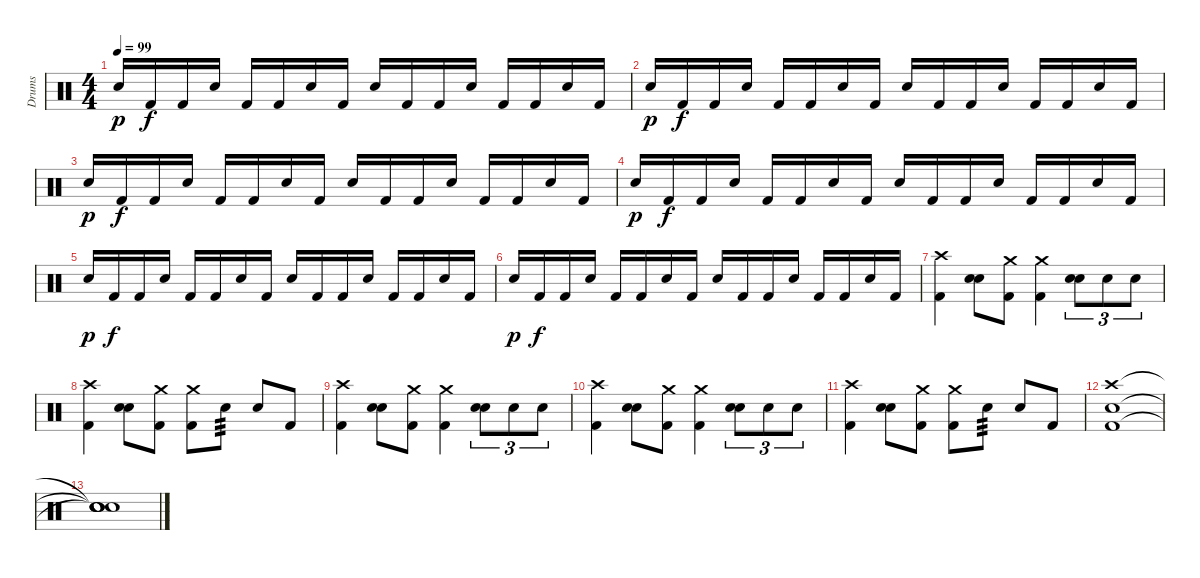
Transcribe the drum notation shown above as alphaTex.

\track ("Drums" "Drums") {instrument percussion}
\staff {score}
\articulation defaults
\ts (4 4)
\tempo 99
\clef neutral
\ks c "Electric Snare (hit)".16{dy p} "Kick (hit) 2".16{dy f} "Kick (hit) 2".16 "Electric Snare (hit)".16 "Kick (hit) 2".16 "Kick (hit) 2".16 "Electric Snare (hit)".16 "Kick (hit) 2".16 "Electric Snare (hit)".16 "Kick (hit) 2".16 "Kick (hit) 2".16 "Electric Snare (hit)".16 "Kick (hit) 2".16 "Kick (hit) 2".16 "Electric Snare (hit)".16 "Kick (hit) 2".16
|
"Electric Snare (hit)".16{dy p} "Kick (hit) 2".16{dy f} "Kick (hit) 2".16 "Electric Snare (hit)".16 "Kick (hit) 2".16 "Kick (hit) 2".16 "Electric Snare (hit)".16 "Kick (hit) 2".16 "Electric Snare (hit)".16 "Kick (hit) 2".16 "Kick (hit) 2".16 "Electric Snare (hit)".16 "Kick (hit) 2".16 "Kick (hit) 2".16 "Electric Snare (hit)".16 "Kick (hit) 2".16 |
"Electric Snare (hit)".16{dy p} "Kick (hit) 2".16{dy f} "Kick (hit) 2".16 "Electric Snare (hit)".16 "Kick (hit) 2".16 "Kick (hit) 2".16 "Electric Snare (hit)".16 "Kick (hit) 2".16 "Electric Snare (hit)".16 "Kick (hit) 2".16 "Kick (hit) 2".16 "Electric Snare (hit)".16 "Kick (hit) 2".16 "Kick (hit) 2".16 "Electric Snare (hit)".16 "Kick (hit) 2".16 |
"Electric Snare (hit)".16{dy p} "Kick (hit) 2".16{dy f} "Kick (hit) 2".16 "Electric Snare (hit)".16 "Kick (hit) 2".16 "Kick (hit) 2".16 "Electric Snare (hit)".16 "Kick (hit) 2".16 "Electric Snare (hit)".16 "Kick (hit) 2".16 "Kick (hit) 2".16 "Electric Snare (hit)".16 "Kick (hit) 2".16 "Kick (hit) 2".16 "Electric Snare (hit)".16 "Kick (hit) 2".16 |
"Electric Snare (hit)".16{dy p} "Kick (hit) 2".16{dy f} "Kick (hit) 2".16 "Electric Snare (hit)".16 "Kick (hit) 2".16 "Kick (hit) 2".16 "Electric Snare (hit)".16 "Kick (hit) 2".16 "Electric Snare (hit)".16 "Kick (hit) 2".16 "Kick (hit) 2".16 "Electric Snare (hit)".16 "Kick (hit) 2".16 "Kick (hit) 2".16 "Electric Snare (hit)".16 "Kick (hit) 2".16 |
"Electric Snare (hit)".16{dy p} "Kick (hit) 2".16{dy f} "Kick (hit) 2".16 "Electric Snare (hit)".16 "Kick (hit) 2".16 "Kick (hit) 2".16 "Electric Snare (hit)".16 "Kick (hit) 2".16 "Electric Snare (hit)".16 "Kick (hit) 2".16 "Kick (hit) 2".16 "Electric Snare (hit)".16 "Kick (hit) 2".16 "Kick (hit) 2".16 "Electric Snare (hit)".16 "Kick (hit) 2".16 |
("Crash high (hit)" "Kick (hit) 2").4 ("Electric Snare (hit)" "Electric Snare (hit)").8 ("Crash medium (hit)" "Kick (hit) 2").8 ("Crash medium (hit)" "Kick (hit) 2").4 ("Electric Snare (hit)" "Electric Snare (hit)").8{tu (3 2)} "Electric Snare (hit)".8{tu (3 2)} "Electric Snare (hit)".8{tu (3 2)} |
("Crash high (hit)" "Kick (hit) 2").4 ("Electric Snare (hit)" "Electric Snare (hit)").8 ("Crash medium (hit)" "Kick (hit) 2").8 ("Crash medium (hit)" "Kick (hit) 2").8 "Electric Snare (hit)".8{tp 3} "Electric Snare (hit)".8 "Kick (hit) 2".8 |
("Crash high (hit)" "Kick (hit) 2").4 ("Electric Snare (hit)" "Electric Snare (hit)").8 ("Crash medium (hit)" "Kick (hit) 2").8 ("Crash medium (hit)" "Kick (hit) 2").4 ("Electric Snare (hit)" "Electric Snare (hit)").8{tu (3 2)} "Electric Snare (hit)".8{tu (3 2)} "Electric Snare (hit)".8{tu (3 2)} |
("Crash high (hit)" "Kick (hit) 2").4 ("Electric Snare (hit)" "Electric Snare (hit)").8 ("Crash medium (hit)" "Kick (hit) 2").8 ("Crash medium (hit)" "Kick (hit) 2").4 ("Electric Snare (hit)" "Electric Snare (hit)").8{tu (3 2)} "Electric Snare (hit)".8{tu (3 2)} "Electric Snare (hit)".8{tu (3 2)} |
("Crash high (hit)" "Kick (hit) 2").4 ("Electric Snare (hit)" "Electric Snare (hit)").8 ("Crash medium (hit)" "Kick (hit) 2").8 ("Crash medium (hit)" "Kick (hit) 2").8 "Electric Snare (hit)".8{tp 3} "Electric Snare (hit)".8 "Kick (hit) 2".8 |
("Crash high (hit)" "Electric Snare (hit)" "Kick (hit) 2").1 |
("Snare (hit)"{t} "Snare (hit)"{t} "Snare (hit)"{t} "Snare (hit)" "Snare (hit)").1
